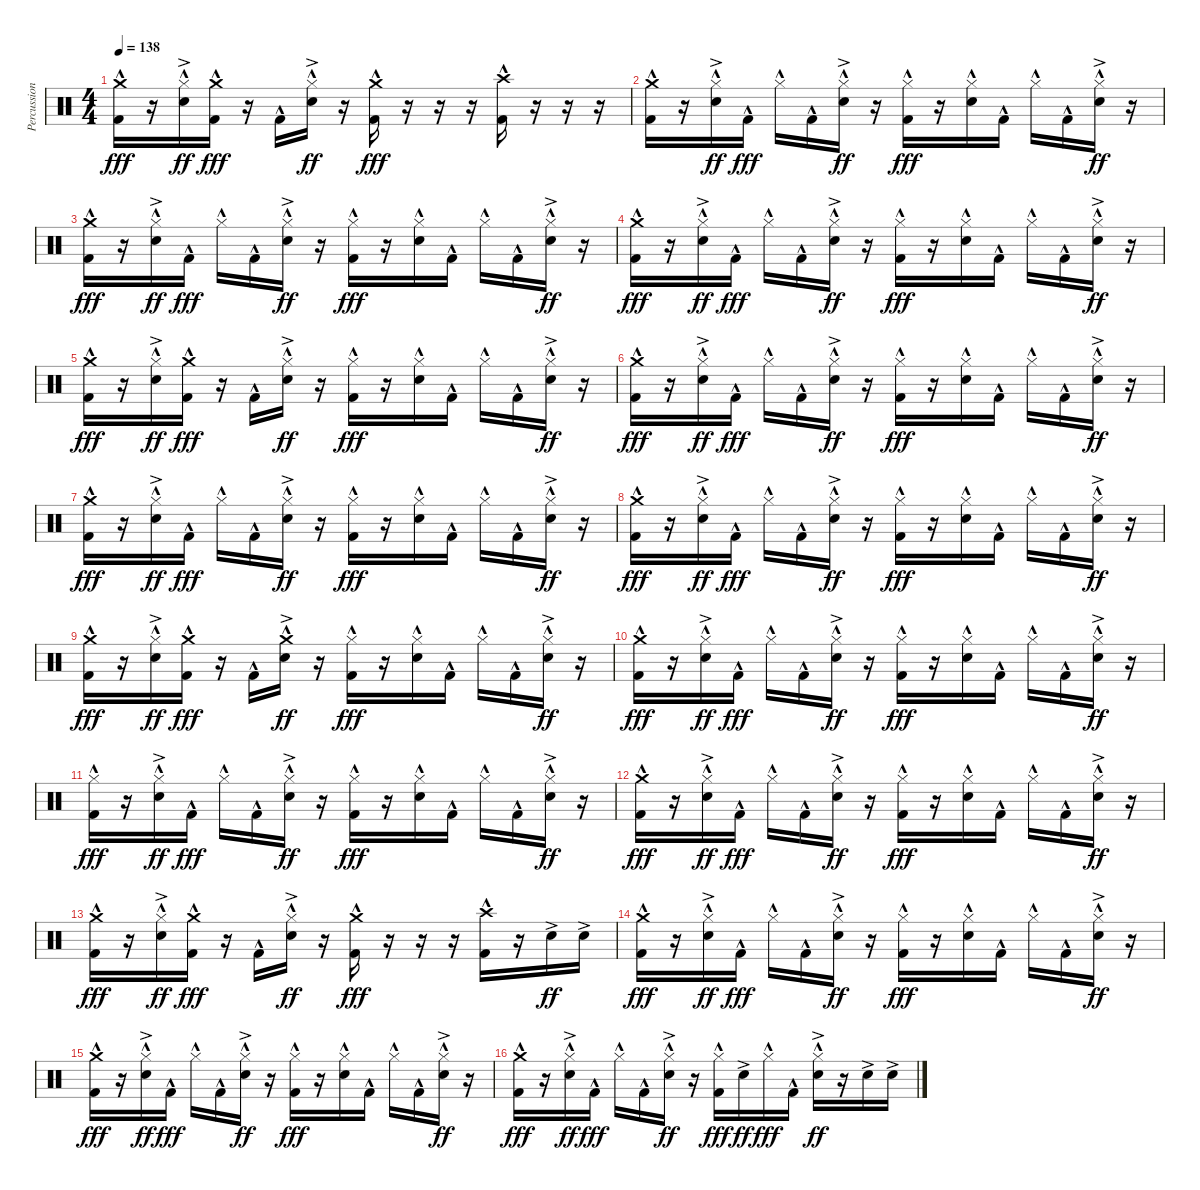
\track ("Percussion" "Percussion") {instrument percussion}
\staff {score}
\articulation defaults
\ts (4 4)
\tempo 138
\clef neutral
\ks c
("Crash medium (hit)"{hac} "Kick (hit) 2"{hac}).16{dy fff} r.16 ("Hi-Hat (closed)"{hac} "Snare (hit) 2"{ac}).16{dy ff} ("Crash medium (hit)"{hac} "Kick (hit) 2"{hac}).16{dy fff} r.16 "Kick (hit) 2"{hac}.16 ("Hi-Hat (closed)"{hac} "Snare (hit) 2"{ac}).16{dy ff} r.16 ("Crash medium (hit)"{hac} "Kick (hit) 2"{hac}).16{dy fff} r.16 r.16 r.16 ("Crash high (hit)"{hac} "Kick (hit) 2").16 r.16 r.16 r.16 |
("Crash medium (hit)"{hac} "Kick (hit) 2"{hac}).16 r.16 ("Hi-Hat (closed)"{hac} "Snare (hit) 2"{ac}).16{dy ff} "Kick (hit) 2"{hac}.16{dy fff} "Hi-Hat (closed)"{hac}.16 "Kick (hit) 2"{hac}.16 ("Hi-Hat (closed)"{hac} "Snare (hit) 2"{ac}).16{dy ff} r.16 ("Hi-Hat (closed)"{hac} "Kick (hit) 2"{hac}).16{dy fff} r.16 ("Hi-Hat (closed)"{hac} "Snare (hit) 2").16 "Kick (hit) 2"{hac}.16 "Hi-Hat (closed)"{hac}.16 "Kick (hit) 2"{hac}.16 ("Hi-Hat (closed)"{hac} "Snare (hit) 2"{ac}).16{dy ff} r.16 |
("Crash medium (hit)"{hac} "Kick (hit) 2"{hac}).16{dy fff} r.16 ("Hi-Hat (closed)"{hac} "Snare (hit) 2"{ac}).16{dy ff} "Kick (hit) 2"{hac}.16{dy fff} "Hi-Hat (closed)"{hac}.16 "Kick (hit) 2"{hac}.16 ("Hi-Hat (closed)"{hac} "Snare (hit) 2"{ac}).16{dy ff} r.16 ("Hi-Hat (closed)"{hac} "Kick (hit) 2"{hac}).16{dy fff} r.16 ("Hi-Hat (closed)"{hac} "Snare (hit) 2").16 "Kick (hit) 2"{hac}.16 "Hi-Hat (closed)"{hac}.16 "Kick (hit) 2"{hac}.16 ("Hi-Hat (closed)"{hac} "Snare (hit) 2"{ac}).16{dy ff} r.16 |
("Crash medium (hit)"{hac} "Kick (hit) 2"{hac}).16{dy fff} r.16 ("Hi-Hat (closed)"{hac} "Snare (hit) 2"{ac}).16{dy ff} "Kick (hit) 2"{hac}.16{dy fff} "Hi-Hat (closed)"{hac}.16 "Kick (hit) 2"{hac}.16 ("Hi-Hat (closed)"{hac} "Snare (hit) 2"{ac}).16{dy ff} r.16 ("Hi-Hat (closed)"{hac} "Kick (hit) 2"{hac}).16{dy fff} r.16 ("Hi-Hat (closed)"{hac} "Snare (hit) 2").16 "Kick (hit) 2"{hac}.16 "Hi-Hat (closed)"{hac}.16 "Kick (hit) 2"{hac}.16 ("Hi-Hat (closed)"{hac} "Snare (hit) 2"{ac}).16{dy ff} r.16 |
("Crash medium (hit)"{hac} "Kick (hit) 2"{hac}).16{dy fff} r.16 ("Hi-Hat (closed)"{hac} "Snare (hit) 2"{ac}).16{dy ff} ("Crash medium (hit)"{hac} "Kick (hit) 2"{hac}).16{dy fff} r.16 "Kick (hit) 2"{hac}.16 ("Hi-Hat (closed)"{hac} "Snare (hit) 2"{ac}).16{dy ff} r.16 ("Hi-Hat (closed)"{hac} "Kick (hit) 2"{hac}).16{dy fff} r.16 ("Hi-Hat (closed)"{hac} "Snare (hit) 2").16 "Kick (hit) 2"{hac}.16 "Hi-Hat (closed)"{hac}.16 "Kick (hit) 2"{hac}.16 ("Hi-Hat (closed)"{hac} "Snare (hit) 2"{ac}).16{dy ff} r.16 |
("Crash medium (hit)"{hac} "Kick (hit) 2"{hac}).16{dy fff} r.16 ("Hi-Hat (closed)"{hac} "Snare (hit) 2"{ac}).16{dy ff} "Kick (hit) 2"{hac}.16{dy fff} "Hi-Hat (closed)"{hac}.16 "Kick (hit) 2"{hac}.16 ("Hi-Hat (closed)"{hac} "Snare (hit) 2"{ac}).16{dy ff} r.16 ("Hi-Hat (closed)"{hac} "Kick (hit) 2"{hac}).16{dy fff} r.16 ("Hi-Hat (closed)"{hac} "Snare (hit) 2").16 "Kick (hit) 2"{hac}.16 "Hi-Hat (closed)"{hac}.16 "Kick (hit) 2"{hac}.16 ("Hi-Hat (closed)"{hac} "Snare (hit) 2"{ac}).16{dy ff} r.16 |
("Crash medium (hit)"{hac} "Kick (hit) 2"{hac}).16{dy fff} r.16 ("Hi-Hat (closed)"{hac} "Snare (hit) 2"{ac}).16{dy ff} "Kick (hit) 2"{hac}.16{dy fff} "Hi-Hat (closed)"{hac}.16 "Kick (hit) 2"{hac}.16 ("Hi-Hat (closed)"{hac} "Snare (hit) 2"{ac}).16{dy ff} r.16 ("Hi-Hat (closed)"{hac} "Kick (hit) 2"{hac}).16{dy fff} r.16 ("Hi-Hat (closed)"{hac} "Snare (hit) 2").16 "Kick (hit) 2"{hac}.16 "Hi-Hat (closed)"{hac}.16 "Kick (hit) 2"{hac}.16 ("Hi-Hat (closed)"{hac} "Snare (hit) 2"{ac}).16{dy ff} r.16 |
("Crash medium (hit)"{hac} "Kick (hit) 2"{hac}).16{dy fff} r.16 ("Hi-Hat (closed)"{hac} "Snare (hit) 2"{ac}).16{dy ff} "Kick (hit) 2"{hac}.16{dy fff} "Hi-Hat (closed)"{hac}.16 "Kick (hit) 2"{hac}.16 ("Hi-Hat (closed)"{hac} "Snare (hit) 2"{ac}).16{dy ff} r.16 ("Hi-Hat (closed)"{hac} "Kick (hit) 2"{hac}).16{dy fff} r.16 ("Hi-Hat (closed)"{hac} "Snare (hit) 2").16 "Kick (hit) 2"{hac}.16 "Hi-Hat (closed)"{hac}.16 "Kick (hit) 2"{hac}.16 ("Hi-Hat (closed)"{hac} "Snare (hit) 2"{ac}).16{dy ff} r.16 |
("Crash medium (hit)"{hac} "Kick (hit) 2"{hac}).16{dy fff} r.16 ("Hi-Hat (closed)"{hac} "Snare (hit) 2"{ac}).16{dy ff} ("Crash medium (hit)"{hac} "Kick (hit) 2"{hac}).16{dy fff} r.16 "Kick (hit) 2"{hac}.16 ("Crash medium (hit)"{hac} "Snare (hit) 2"{ac}).16{dy ff} r.16 ("Hi-Hat (closed)"{hac} "Kick (hit) 2"{hac}).16{dy fff} r.16 ("Hi-Hat (closed)"{hac} "Snare (hit) 2").16 "Kick (hit) 2"{hac}.16 "Hi-Hat (closed)"{hac}.16 "Kick (hit) 2"{hac}.16 ("Hi-Hat (closed)"{hac} "Snare (hit) 2"{ac}).16{dy ff} r.16 |
("Crash medium (hit)"{hac} "Kick (hit) 2"{hac}).16{dy fff} r.16 ("Hi-Hat (closed)"{hac} "Snare (hit) 2"{ac}).16{dy ff} "Kick (hit) 2"{hac}.16{dy fff} "Hi-Hat (closed)"{hac}.16 "Kick (hit) 2"{hac}.16 ("Hi-Hat (closed)"{hac} "Snare (hit) 2"{ac}).16{dy ff} r.16 ("Hi-Hat (closed)"{hac} "Kick (hit) 2"{hac}).16{dy fff} r.16 ("Hi-Hat (closed)"{hac} "Snare (hit) 2").16 "Kick (hit) 2"{hac}.16 "Hi-Hat (closed)"{hac}.16 "Kick (hit) 2"{hac}.16 ("Hi-Hat (closed)"{hac} "Snare (hit) 2"{ac}).16{dy ff} r.16 |
("Hi-Hat (closed)"{hac} "Kick (hit) 2"{hac}).16{dy fff} r.16 ("Hi-Hat (closed)"{hac} "Snare (hit) 2"{ac}).16{dy ff} "Kick (hit) 2"{hac}.16{dy fff} "Hi-Hat (closed)"{hac}.16 "Kick (hit) 2"{hac}.16 ("Hi-Hat (closed)"{hac} "Snare (hit) 2"{ac}).16{dy ff} r.16 ("Hi-Hat (closed)"{hac} "Kick (hit) 2"{hac}).16{dy fff} r.16 ("Hi-Hat (closed)"{hac} "Snare (hit) 2").16 "Kick (hit) 2"{hac}.16 "Hi-Hat (closed)"{hac}.16 "Kick (hit) 2"{hac}.16 ("Hi-Hat (closed)"{hac} "Snare (hit) 2"{ac}).16{dy ff} r.16 |
("Crash medium (hit)"{hac} "Kick (hit) 2"{hac}).16{dy fff} r.16 ("Hi-Hat (closed)"{hac} "Snare (hit) 2"{ac}).16{dy ff} "Kick (hit) 2"{hac}.16{dy fff} "Hi-Hat (closed)"{hac}.16 "Kick (hit) 2"{hac}.16 ("Hi-Hat (closed)"{hac} "Snare (hit) 2"{ac}).16{dy ff} r.16 ("Hi-Hat (closed)"{hac} "Kick (hit) 2"{hac}).16{dy fff} r.16 ("Hi-Hat (closed)"{hac} "Snare (hit) 2").16 "Kick (hit) 2"{hac}.16 "Hi-Hat (closed)"{hac}.16 "Kick (hit) 2"{hac}.16 ("Hi-Hat (closed)"{hac} "Snare (hit) 2"{ac}).16{dy ff} r.16 |
("Crash medium (hit)"{hac} "Kick (hit) 2"{hac}).16{dy fff} r.16 ("Hi-Hat (closed)"{hac} "Snare (hit) 2"{ac}).16{dy ff} ("Crash medium (hit)"{hac} "Kick (hit) 2"{hac}).16{dy fff} r.16 "Kick (hit) 2"{hac}.16 ("Hi-Hat (closed)"{hac} "Snare (hit) 2"{ac}).16{dy ff} r.16 ("Crash medium (hit)"{hac} "Kick (hit) 2"{hac}).16{dy fff} r.16 r.16 r.16 ("Crash high (hit)"{hac} "Kick (hit) 2"{hac}).16 r.16 "Snare (hit) 2"{ac}.16{dy ff} "Snare (hit) 2"{ac}.16 |
("Crash medium (hit)"{hac} "Kick (hit) 2"{hac}).16{dy fff} r.16 ("Hi-Hat (closed)"{hac} "Snare (hit) 2"{ac}).16{dy ff} "Kick (hit) 2"{hac}.16{dy fff} "Hi-Hat (closed)"{hac}.16 "Kick (hit) 2"{hac}.16 ("Hi-Hat (closed)"{hac} "Snare (hit) 2"{ac}).16{dy ff} r.16 ("Hi-Hat (closed)"{hac} "Kick (hit) 2"{hac}).16{dy fff} r.16 ("Hi-Hat (closed)"{hac} "Snare (hit) 2").16 "Kick (hit) 2"{hac}.16 "Hi-Hat (closed)"{hac}.16 "Kick (hit) 2"{hac}.16 ("Hi-Hat (closed)"{hac} "Snare (hit) 2"{ac}).16{dy ff} r.16 |
("Crash medium (hit)"{hac} "Kick (hit) 2"{hac}).16{dy fff} r.16 ("Hi-Hat (closed)"{hac} "Snare (hit) 2"{ac}).16{dy ff} "Kick (hit) 2"{hac}.16{dy fff} "Hi-Hat (closed)"{hac}.16 "Kick (hit) 2"{hac}.16 ("Hi-Hat (closed)"{hac} "Snare (hit) 2"{ac}).16{dy ff} r.16 ("Hi-Hat (closed)"{hac} "Kick (hit) 2"{hac}).16{dy fff} r.16 ("Hi-Hat (closed)"{hac} "Snare (hit) 2").16 "Kick (hit) 2"{hac}.16 "Hi-Hat (closed)"{hac}.16 "Kick (hit) 2"{hac}.16 ("Hi-Hat (closed)"{hac} "Snare (hit) 2"{ac}).16{dy ff} r.16 |
("Crash medium (hit)"{hac} "Kick (hit) 2"{hac}).16{dy fff} r.16 ("Hi-Hat (closed)"{hac} "Snare (hit) 2"{ac}).16{dy ff} "Kick (hit) 2"{hac}.16{dy fff} "Hi-Hat (closed)"{hac}.16 "Kick (hit) 2"{hac}.16 ("Hi-Hat (closed)"{hac} "Snare (hit) 2"{ac}).16{dy ff} r.16 ("Hi-Hat (closed)"{hac} "Kick (hit) 2"{hac}).16{dy fff} "Snare (hit) 2"{ac}.16{dy ff} "Hi-Hat (closed)"{hac}.16{dy fff} "Kick (hit) 2"{hac}.16 ("Hi-Hat (closed)"{hac} "Snare (hit) 2"{ac}).16{dy ff} r.16 "Snare (hit) 2"{ac}.16 "Snare (hit) 2"{ac}.16
